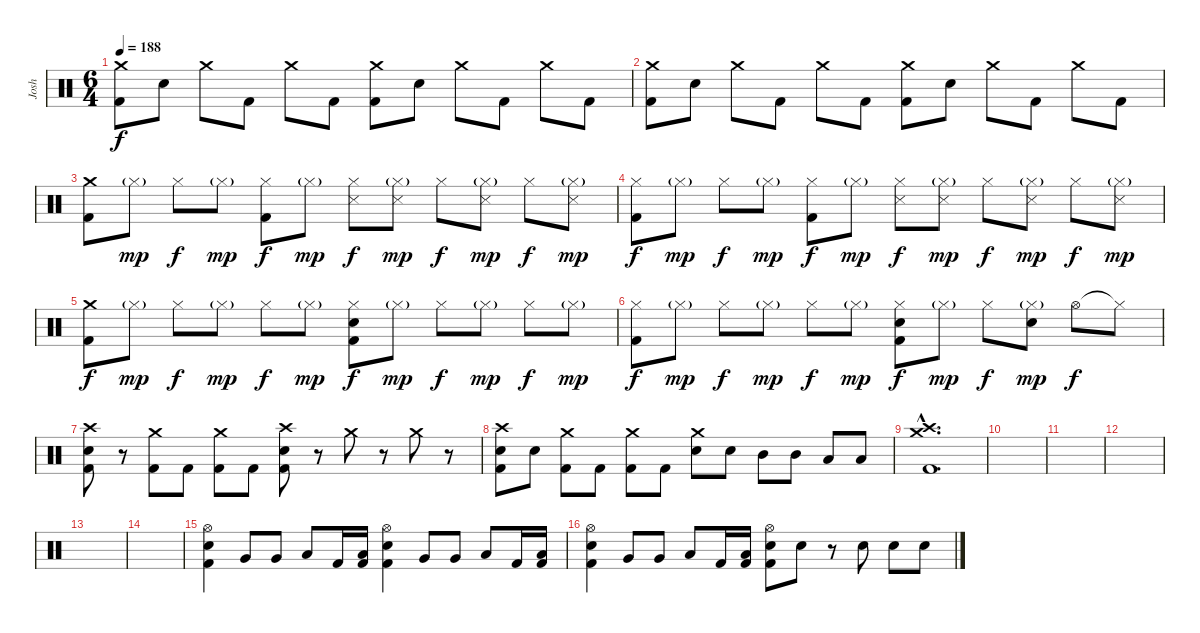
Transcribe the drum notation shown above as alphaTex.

\track ("Josh" "Josh") {instrument percussion}
\staff {score}
\articulation defaults
\ts (6 4)
\tempo 188
\clef neutral
\ks c
("Crash medium (hit)" "Kick (hit) 2").8{dy f} "Electric Snare (hit)".8 "Crash medium (hit)".8 "Kick (hit) 2".8 "Crash medium (hit)".8 "Kick (hit) 2".8 ("Crash medium (hit)" "Kick (hit) 2").8 "Electric Snare (hit)".8 "Crash medium (hit)".8 "Kick (hit) 2".8 "Crash medium (hit)".8 "Kick (hit) 2".8 |
("Crash medium (hit)" "Kick (hit) 2").8 "Electric Snare (hit)".8 "Crash medium (hit)".8 "Kick (hit) 2".8 "Crash medium (hit)".8 "Kick (hit) 2".8 ("Crash medium (hit)" "Kick (hit) 2").8 "Electric Snare (hit)".8 "Crash medium (hit)".8 "Kick (hit) 2".8 "Crash medium (hit)".8 "Kick (hit) 2".8 |
("Crash medium (hit)" "Kick (hit) 2").8 "Hi-Hat (closed)"{g}.8{dy mp} "Hi-Hat (closed)".8{dy f} "Hi-Hat (closed)"{g}.8{dy mp} ("Hi-Hat (closed)" "Kick (hit) 2").8{dy f} "Hi-Hat (closed)"{g}.8{dy mp} ("Hi-Hat (closed)" "Snare (side stick) 3").8{dy f} ("Hi-Hat (closed)"{g} "Snare (side stick) 3").8{dy mp} "Hi-Hat (closed)".8{dy f} ("Hi-Hat (closed)"{g} "Snare (side stick) 3").8{dy mp} "Hi-Hat (closed)".8{dy f} ("Hi-Hat (closed)"{g} "Snare (side stick) 3").8{dy mp} |
("Hi-Hat (closed)" "Kick (hit) 2").8{dy f} "Hi-Hat (closed)"{g}.8{dy mp} "Hi-Hat (closed)".8{dy f} "Hi-Hat (closed)"{g}.8{dy mp} ("Hi-Hat (closed)" "Kick (hit) 2").8{dy f} "Hi-Hat (closed)"{g}.8{dy mp} ("Hi-Hat (closed)" "Snare (side stick) 3").8{dy f} ("Hi-Hat (closed)"{g} "Snare (side stick) 3").8{dy mp} "Hi-Hat (closed)".8{dy f} ("Hi-Hat (closed)"{g} "Snare (side stick) 3").8{dy mp} "Hi-Hat (closed)".8{dy f} ("Hi-Hat (closed)"{g} "Snare (side stick) 3").8{dy mp} |
("Crash medium (hit)" "Kick (hit) 2").8{dy f} "Hi-Hat (closed)"{g}.8{dy mp} "Hi-Hat (closed)".8{dy f} "Hi-Hat (closed)"{g}.8{dy mp} "Hi-Hat (closed)".8{dy f} "Hi-Hat (closed)"{g}.8{dy mp} ("Hi-Hat (closed)" "Electric Snare (hit)" "Kick (hit) 2").8{dy f} "Hi-Hat (closed)"{g}.8{dy mp} "Hi-Hat (closed)".8{dy f} "Hi-Hat (closed)"{g}.8{dy mp} "Hi-Hat (closed)".8{dy f} "Hi-Hat (closed)"{g}.8{dy mp} |
("Hi-Hat (closed)" "Kick (hit) 2").8{dy f} "Hi-Hat (closed)"{g}.8{dy mp} "Hi-Hat (closed)".8{dy f} "Hi-Hat (closed)"{g}.8{dy mp} "Hi-Hat (closed)".8{dy f} "Hi-Hat (closed)"{g}.8{dy mp} ("Hi-Hat (closed)" "Electric Snare (hit)" "Kick (hit) 2").8{dy f} "Hi-Hat (closed)"{g}.8{dy mp} "Hi-Hat (closed)".8{dy f} ("Hi-Hat (closed)"{g} "Electric Snare (hit)").8{dy mp} "Hi-Hat (open)".8{dy f} "Hi-Hat (closed)"{t}.8 |
("Crash high (hit)" "Electric Snare (hit)" "Kick (hit) 2").8 r.8 ("Crash medium (hit)" "Kick (hit) 2").8 "Kick (hit) 2".8 ("Crash medium (hit)" "Kick (hit) 2").8 "Kick (hit) 2".8 ("Crash high (hit)" "Electric Snare (hit)" "Kick (hit) 2").8 r.8 "Crash medium (hit)".8 r.8 "Crash medium (hit)".8 r.8 |
("Crash high (hit)" "Electric Snare (hit)" "Kick (hit) 2").8 "Electric Snare (hit)".8 ("Crash medium (hit)" "Kick (hit) 2").8 "Kick (hit) 2".8 ("Crash medium (hit)" "Kick (hit) 2").8 "Kick (hit) 2".8 ("Crash medium (hit)" "Electric Snare (hit)").8 "Electric Snare (hit)".8 "Mid Tom (hit)".8 "Mid Tom (hit)".8 "Low Tom (hit)".8 "Low Tom (hit)".8 |
("Crash medium (hit)"{hac} "Crash high (hit)"{hac} "Kick (hit) 2"{hac}).1{d} |
|
|
|
|
|
("Hi-Hat (open)" "Electric Snare (hit)" "Kick (hit) 2").4 "Very Low Tom (hit)".8 "Very Low Tom (hit)".8 "Low Floor Tom (hit)".8 "Kick (hit) 2".16 ("Low Floor Tom (hit)" "Kick (hit) 2").16 ("Hi-Hat (open)" "Electric Snare (hit)" "Kick (hit) 2").4 "Very Low Tom (hit)".8 "Very Low Tom (hit)".8 "Low Floor Tom (hit)".8 "Kick (hit) 2".16 ("Low Floor Tom (hit)" "Kick (hit) 2").16 |
("Hi-Hat (open)" "Electric Snare (hit)" "Kick (hit) 2").4 "Very Low Tom (hit)".8 "Very Low Tom (hit)".8 "Low Floor Tom (hit)".8 "Kick (hit) 2".16 ("Low Floor Tom (hit)" "Kick (hit) 2").16 ("Hi-Hat (open)" "Electric Snare (hit)" "Kick (hit) 2").8 "Electric Snare (hit)".8 r.8 "Electric Snare (hit)".8 "Electric Snare (hit)".8 "Electric Snare (hit)".8
